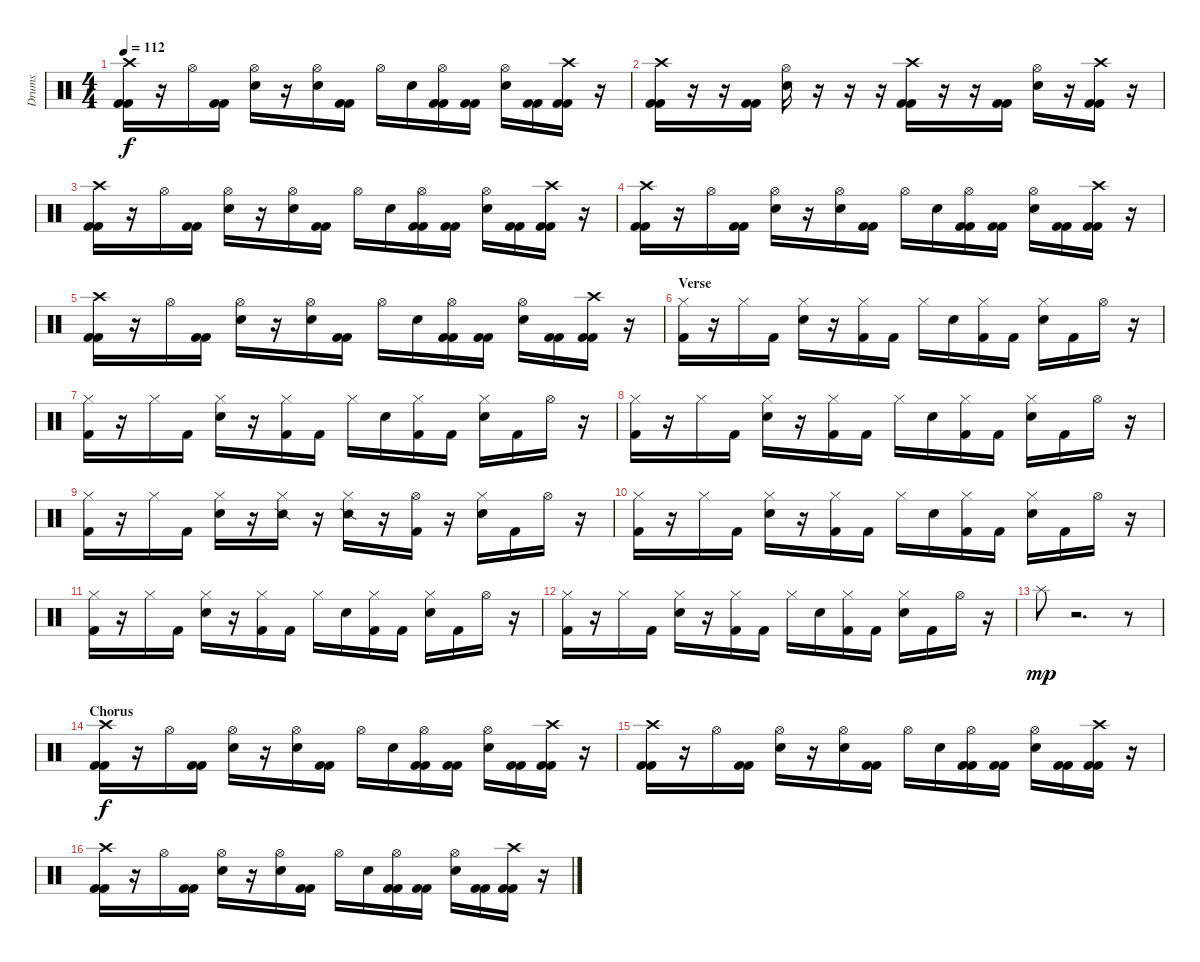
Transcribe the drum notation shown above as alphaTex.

\track ("Drums" "Drums") {instrument percussion}
\staff {score}
\articulation defaults
\ts (4 4)
\tempo 112
\clef neutral
\ks c
("Crash high (hit)" "Kick (hit) 2" "Kick (hit) 2").16{dy f} r.16 "Hi-Hat (open)".16 ("Kick (hit) 2" "Kick (hit) 2").16 ("Hi-Hat (open)" "Snare (hit) 2").16 r.16 ("Hi-Hat (open)" "Snare (hit) 2").16 ("Kick (hit) 2" "Kick (hit) 2").16 "Hi-Hat (open)".16 "Snare (hit) 2".16 ("Hi-Hat (open)" "Kick (hit) 2" "Kick (hit) 2").16 ("Kick (hit) 2" "Kick (hit) 2").16 ("Hi-Hat (open)" "Snare (hit) 2").16 ("Kick (hit) 2" "Kick (hit) 2").16 ("Crash high (hit)" "Kick (hit) 2" "Kick (hit) 2").16 r.16 |
("Crash high (hit)" "Kick (hit) 2" "Kick (hit) 2").16 r.16 r.16 ("Kick (hit) 2" "Kick (hit) 2").16 ("Hi-Hat (open)" "Snare (hit) 2").16 r.16 r.16 r.16 ("Crash high (hit)" "Kick (hit) 2" "Kick (hit) 2").16 r.16 r.16 ("Kick (hit) 2" "Kick (hit) 2").16 ("Hi-Hat (open)" "Snare (hit) 2").16 r.16 ("Crash high (hit)" "Kick (hit) 2" "Kick (hit) 2").16 r.16 |
("Crash high (hit)" "Kick (hit) 2" "Kick (hit) 2").16 r.16 "Hi-Hat (open)".16 ("Kick (hit) 2" "Kick (hit) 2").16 ("Hi-Hat (open)" "Snare (hit) 2").16 r.16 ("Hi-Hat (open)" "Snare (hit) 2").16 ("Kick (hit) 2" "Kick (hit) 2").16 "Hi-Hat (open)".16 "Snare (hit) 2".16 ("Hi-Hat (open)" "Kick (hit) 2" "Kick (hit) 2").16 ("Kick (hit) 2" "Kick (hit) 2").16 ("Hi-Hat (open)" "Snare (hit) 2").16 ("Kick (hit) 2" "Kick (hit) 2").16 ("Crash high (hit)" "Kick (hit) 2" "Kick (hit) 2").16 r.16 |
("Crash high (hit)" "Kick (hit) 2" "Kick (hit) 2").16 r.16 "Hi-Hat (open)".16 ("Kick (hit) 2" "Kick (hit) 2").16 ("Hi-Hat (open)" "Snare (hit) 2").16 r.16 ("Hi-Hat (open)" "Snare (hit) 2").16 ("Kick (hit) 2" "Kick (hit) 2").16 "Hi-Hat (open)".16 "Snare (hit) 2".16 ("Hi-Hat (open)" "Kick (hit) 2" "Kick (hit) 2").16 ("Kick (hit) 2" "Kick (hit) 2").16 ("Hi-Hat (open)" "Snare (hit) 2").16 ("Kick (hit) 2" "Kick (hit) 2").16 ("Crash high (hit)" "Kick (hit) 2" "Kick (hit) 2").16 r.16 |
("Crash high (hit)" "Kick (hit) 2" "Kick (hit) 2").16 r.16 "Hi-Hat (open)".16 ("Kick (hit) 2" "Kick (hit) 2").16 ("Hi-Hat (open)" "Snare (hit) 2").16 r.16 ("Hi-Hat (open)" "Snare (hit) 2").16 ("Kick (hit) 2" "Kick (hit) 2").16 "Hi-Hat (open)".16 "Snare (hit) 2".16 ("Hi-Hat (open)" "Kick (hit) 2" "Kick (hit) 2").16 ("Kick (hit) 2" "Kick (hit) 2").16 ("Hi-Hat (open)" "Snare (hit) 2").16 ("Kick (hit) 2" "Kick (hit) 2").16 ("Crash high (hit)" "Kick (hit) 2" "Kick (hit) 2").16 r.16 |
\section ("" "Verse")
("Hi-Hat (closed)" "Kick (hit) 2").16 r.16 "Hi-Hat (closed)".16 "Kick (hit) 2".16 ("Hi-Hat (closed)" "Snare (hit) 2").16 r.16 ("Hi-Hat (closed)" "Kick (hit) 2").16 "Kick (hit) 2".16 "Hi-Hat (closed)".16 "Snare (hit) 2".16 ("Hi-Hat (closed)" "Kick (hit) 2").16 "Kick (hit) 2".16 ("Hi-Hat (closed)" "Snare (hit) 2").16 "Kick (hit) 2".16 "Hi-Hat (open)".16 r.16 |
("Hi-Hat (closed)" "Kick (hit) 2").16 r.16 "Hi-Hat (closed)".16 "Kick (hit) 2".16 ("Hi-Hat (closed)" "Snare (hit) 2").16 r.16 ("Hi-Hat (closed)" "Kick (hit) 2").16 "Kick (hit) 2".16 "Hi-Hat (closed)".16 "Snare (hit) 2".16 ("Hi-Hat (closed)" "Kick (hit) 2").16 "Kick (hit) 2".16 ("Hi-Hat (closed)" "Snare (hit) 2").16 "Kick (hit) 2".16 "Hi-Hat (open)".16 r.16 |
("Hi-Hat (closed)" "Kick (hit) 2").16 r.16 "Hi-Hat (closed)".16 "Kick (hit) 2".16 ("Hi-Hat (closed)" "Snare (hit) 2").16 r.16 ("Hi-Hat (closed)" "Kick (hit) 2").16 "Kick (hit) 2".16 "Hi-Hat (closed)".16 "Snare (hit) 2".16 ("Hi-Hat (closed)" "Kick (hit) 2").16 "Kick (hit) 2".16 ("Hi-Hat (closed)" "Snare (hit) 2").16 "Kick (hit) 2".16 "Hi-Hat (open)".16 r.16 |
("Hi-Hat (closed)" "Kick (hit) 2").16 r.16 "Hi-Hat (closed)".16 "Kick (hit) 2".16 ("Hi-Hat (closed)" "Snare (hit) 2").16 r.16 ("Hi-Hat (closed)" "Snare (side stick) 2").16 r.16 ("Hi-Hat (closed)" "Snare (side stick) 2").16 r.16 ("Hi-Hat (open)" "Kick (hit) 2").16 r.16 ("Hi-Hat (closed)" "Snare (hit) 2").16 "Kick (hit) 2".16 "Hi-Hat (open)".16 r.16 |
("Hi-Hat (closed)" "Kick (hit) 2").16 r.16 "Hi-Hat (closed)".16 "Kick (hit) 2".16 ("Hi-Hat (closed)" "Snare (hit) 2").16 r.16 ("Hi-Hat (closed)" "Kick (hit) 2").16 "Kick (hit) 2".16 "Hi-Hat (closed)".16 "Snare (hit) 2".16 ("Hi-Hat (closed)" "Kick (hit) 2").16 "Kick (hit) 2".16 ("Hi-Hat (closed)" "Snare (hit) 2").16 "Kick (hit) 2".16 "Hi-Hat (open)".16 r.16 |
("Hi-Hat (closed)" "Kick (hit) 2").16 r.16 "Hi-Hat (closed)".16 "Kick (hit) 2".16 ("Hi-Hat (closed)" "Snare (hit) 2").16 r.16 ("Hi-Hat (closed)" "Kick (hit) 2").16 "Kick (hit) 2".16 "Hi-Hat (closed)".16 "Snare (hit) 2".16 ("Hi-Hat (closed)" "Kick (hit) 2").16 "Kick (hit) 2".16 ("Hi-Hat (closed)" "Snare (hit) 2").16 "Kick (hit) 2".16 "Hi-Hat (open)".16 r.16 |
("Hi-Hat (closed)" "Kick (hit) 2").16 r.16 "Hi-Hat (closed)".16 "Kick (hit) 2".16 ("Hi-Hat (closed)" "Snare (hit) 2").16 r.16 ("Hi-Hat (closed)" "Kick (hit) 2").16 "Kick (hit) 2".16 "Hi-Hat (closed)".16 "Snare (hit) 2".16 ("Hi-Hat (closed)" "Kick (hit) 2").16 "Kick (hit) 2".16 ("Hi-Hat (closed)" "Snare (hit) 2").16 "Kick (hit) 2".16 "Hi-Hat (open)".16 r.16 |
"Splash (hit)".8{dy mp} r.2{d} r.8 |
\section ("" "Chorus")
("Crash high (hit)" "Kick (hit) 2" "Kick (hit) 2").16{dy f} r.16 "Hi-Hat (open)".16 ("Kick (hit) 2" "Kick (hit) 2").16 ("Hi-Hat (open)" "Snare (hit) 2").16 r.16 ("Hi-Hat (open)" "Snare (hit) 2").16 ("Kick (hit) 2" "Kick (hit) 2").16 "Hi-Hat (open)".16 "Snare (hit) 2".16 ("Hi-Hat (open)" "Kick (hit) 2" "Kick (hit) 2").16 ("Kick (hit) 2" "Kick (hit) 2").16 ("Hi-Hat (open)" "Snare (hit) 2").16 ("Kick (hit) 2" "Kick (hit) 2").16 ("Crash high (hit)" "Kick (hit) 2" "Kick (hit) 2").16 r.16 |
("Crash high (hit)" "Kick (hit) 2" "Kick (hit) 2").16 r.16 "Hi-Hat (open)".16 ("Kick (hit) 2" "Kick (hit) 2").16 ("Hi-Hat (open)" "Snare (hit) 2").16 r.16 ("Hi-Hat (open)" "Snare (hit) 2").16 ("Kick (hit) 2" "Kick (hit) 2").16 "Hi-Hat (open)".16 "Snare (hit) 2".16 ("Hi-Hat (open)" "Kick (hit) 2" "Kick (hit) 2").16 ("Kick (hit) 2" "Kick (hit) 2").16 ("Hi-Hat (open)" "Snare (hit) 2").16 ("Kick (hit) 2" "Kick (hit) 2").16 ("Crash high (hit)" "Kick (hit) 2" "Kick (hit) 2").16 r.16 |
("Crash high (hit)" "Kick (hit) 2" "Kick (hit) 2").16 r.16 "Hi-Hat (open)".16 ("Kick (hit) 2" "Kick (hit) 2").16 ("Hi-Hat (open)" "Snare (hit) 2").16 r.16 ("Hi-Hat (open)" "Snare (hit) 2").16 ("Kick (hit) 2" "Kick (hit) 2").16 "Hi-Hat (open)".16 "Snare (hit) 2".16 ("Hi-Hat (open)" "Kick (hit) 2" "Kick (hit) 2").16 ("Kick (hit) 2" "Kick (hit) 2").16 ("Hi-Hat (open)" "Snare (hit) 2").16 ("Kick (hit) 2" "Kick (hit) 2").16 ("Crash high (hit)" "Kick (hit) 2" "Kick (hit) 2").16 r.16
